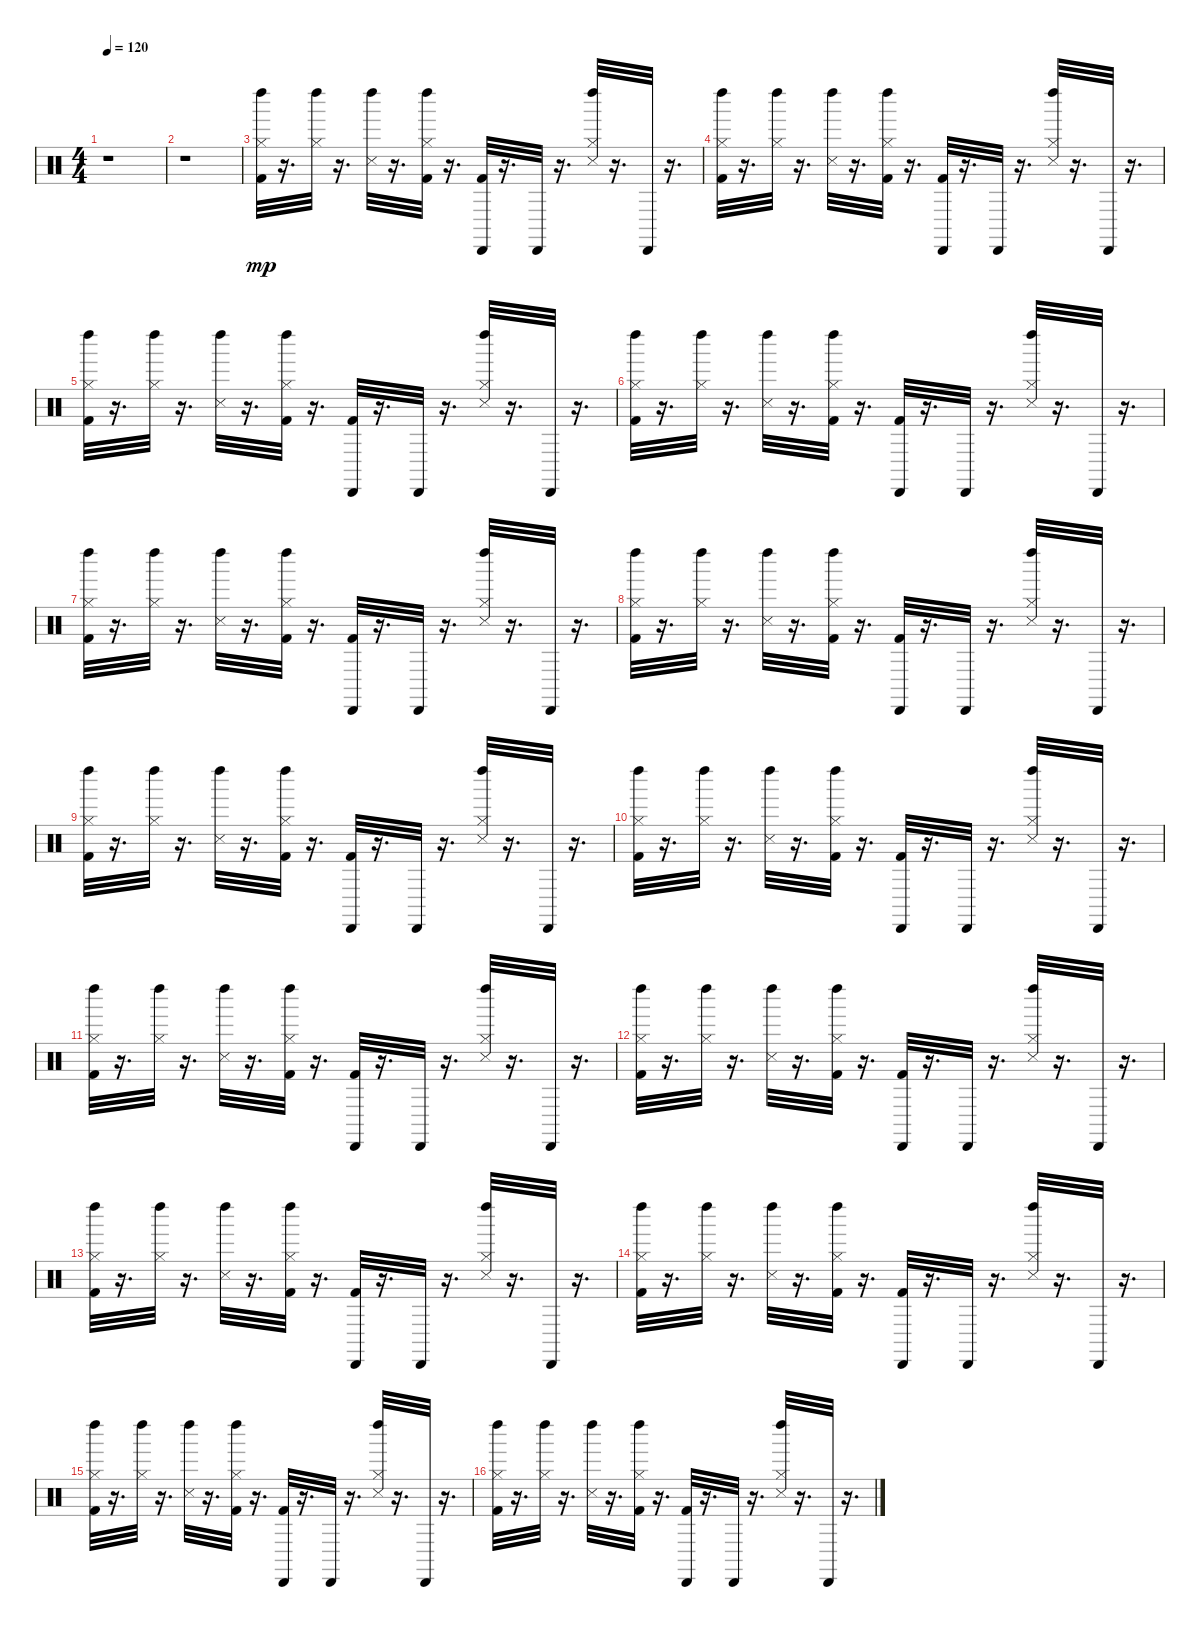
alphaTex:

\track "" {instrument percussion}
\staff {score}
\articulation defaults
\ts (4 4)
\tempo 120
\clef neutral
\ks c
r.1{dy mp} |
r.1 |
("Left Maraca (hit)" "Hi-Hat (closed)" "Kick (hit) 2").32 r.16{d} ("Left Maraca (hit)" "Hi-Hat (closed)").32 r.16{d} ("Snare (side stick) 3" "Left Maraca (hit)").32 r.16{d} ("Kick (hit) 2" "Left Maraca (hit)" "Hi-Hat (closed)").32 r.16{d} ("Kick (hit) 2" "Cabasa (hit)").32 r.16{d} "Cabasa (hit)".32 r.16{d} ("Snare (side stick) 3" "Hi-Hat (closed)" "Left Maraca (hit)").32 r.16{d} "Cabasa (hit)".32 r.16{d} |
("Left Maraca (hit)" "Hi-Hat (closed)" "Kick (hit) 2").32 r.16{d} ("Left Maraca (hit)" "Hi-Hat (closed)").32 r.16{d} ("Snare (side stick) 3" "Left Maraca (hit)").32 r.16{d} ("Kick (hit) 2" "Left Maraca (hit)" "Hi-Hat (closed)").32 r.16{d} ("Kick (hit) 2" "Cabasa (hit)").32 r.16{d} "Cabasa (hit)".32 r.16{d} ("Snare (side stick) 3" "Hi-Hat (closed)" "Left Maraca (hit)").32 r.16{d} "Cabasa (hit)".32 r.16{d} |
("Left Maraca (hit)" "Hi-Hat (closed)" "Kick (hit) 2").32 r.16{d} ("Left Maraca (hit)" "Hi-Hat (closed)").32 r.16{d} ("Snare (side stick) 3" "Left Maraca (hit)").32 r.16{d} ("Kick (hit) 2" "Left Maraca (hit)" "Hi-Hat (closed)").32 r.16{d} ("Kick (hit) 2" "Cabasa (hit)").32 r.16{d} "Cabasa (hit)".32 r.16{d} ("Snare (side stick) 3" "Hi-Hat (closed)" "Left Maraca (hit)").32 r.16{d} "Cabasa (hit)".32 r.16{d} |
("Left Maraca (hit)" "Hi-Hat (closed)" "Kick (hit) 2").32 r.16{d} ("Left Maraca (hit)" "Hi-Hat (closed)").32 r.16{d} ("Snare (side stick) 3" "Left Maraca (hit)").32 r.16{d} ("Kick (hit) 2" "Left Maraca (hit)" "Hi-Hat (closed)").32 r.16{d} ("Kick (hit) 2" "Cabasa (hit)").32 r.16{d} "Cabasa (hit)".32 r.16{d} ("Snare (side stick) 3" "Hi-Hat (closed)" "Left Maraca (hit)").32 r.16{d} "Cabasa (hit)".32 r.16{d} |
("Left Maraca (hit)" "Hi-Hat (closed)" "Kick (hit) 2").32 r.16{d} ("Left Maraca (hit)" "Hi-Hat (closed)").32 r.16{d} ("Snare (side stick) 3" "Left Maraca (hit)").32 r.16{d} ("Kick (hit) 2" "Left Maraca (hit)" "Hi-Hat (closed)").32 r.16{d} ("Kick (hit) 2" "Cabasa (hit)").32 r.16{d} "Cabasa (hit)".32 r.16{d} ("Snare (side stick) 3" "Hi-Hat (closed)" "Left Maraca (hit)").32 r.16{d} "Cabasa (hit)".32 r.16{d} |
("Left Maraca (hit)" "Hi-Hat (closed)" "Kick (hit) 2").32 r.16{d} ("Left Maraca (hit)" "Hi-Hat (closed)").32 r.16{d} ("Snare (side stick) 3" "Left Maraca (hit)").32 r.16{d} ("Kick (hit) 2" "Left Maraca (hit)" "Hi-Hat (closed)").32 r.16{d} ("Kick (hit) 2" "Cabasa (hit)").32 r.16{d} "Cabasa (hit)".32 r.16{d} ("Snare (side stick) 3" "Hi-Hat (closed)" "Left Maraca (hit)").32 r.16{d} "Cabasa (hit)".32 r.16{d} |
("Left Maraca (hit)" "Hi-Hat (closed)" "Kick (hit) 2").32 r.16{d} ("Left Maraca (hit)" "Hi-Hat (closed)").32 r.16{d} ("Snare (side stick) 3" "Left Maraca (hit)").32 r.16{d} ("Kick (hit) 2" "Left Maraca (hit)" "Hi-Hat (closed)").32 r.16{d} ("Kick (hit) 2" "Cabasa (hit)").32 r.16{d} "Cabasa (hit)".32 r.16{d} ("Snare (side stick) 3" "Hi-Hat (closed)" "Left Maraca (hit)").32 r.16{d} "Cabasa (hit)".32 r.16{d} |
("Left Maraca (hit)" "Hi-Hat (closed)" "Kick (hit) 2").32 r.16{d} ("Left Maraca (hit)" "Hi-Hat (closed)").32 r.16{d} ("Snare (side stick) 3" "Left Maraca (hit)").32 r.16{d} ("Kick (hit) 2" "Left Maraca (hit)" "Hi-Hat (closed)").32 r.16{d} ("Kick (hit) 2" "Cabasa (hit)").32 r.16{d} "Cabasa (hit)".32 r.16{d} ("Snare (side stick) 3" "Hi-Hat (closed)" "Left Maraca (hit)").32 r.16{d} "Cabasa (hit)".32 r.16{d} |
("Left Maraca (hit)" "Hi-Hat (closed)" "Kick (hit) 2").32 r.16{d} ("Left Maraca (hit)" "Hi-Hat (closed)").32 r.16{d} ("Snare (side stick) 3" "Left Maraca (hit)").32 r.16{d} ("Kick (hit) 2" "Left Maraca (hit)" "Hi-Hat (closed)").32 r.16{d} ("Kick (hit) 2" "Cabasa (hit)").32 r.16{d} "Cabasa (hit)".32 r.16{d} ("Snare (side stick) 3" "Hi-Hat (closed)" "Left Maraca (hit)").32 r.16{d} "Cabasa (hit)".32 r.16{d} |
("Left Maraca (hit)" "Hi-Hat (closed)" "Kick (hit) 2").32 r.16{d} ("Left Maraca (hit)" "Hi-Hat (closed)").32 r.16{d} ("Snare (side stick) 3" "Left Maraca (hit)").32 r.16{d} ("Kick (hit) 2" "Left Maraca (hit)" "Hi-Hat (closed)").32 r.16{d} ("Kick (hit) 2" "Cabasa (hit)").32 r.16{d} "Cabasa (hit)".32 r.16{d} ("Snare (side stick) 3" "Hi-Hat (closed)" "Left Maraca (hit)").32 r.16{d} "Cabasa (hit)".32 r.16{d} |
("Left Maraca (hit)" "Hi-Hat (closed)" "Kick (hit) 2").32 r.16{d} ("Left Maraca (hit)" "Hi-Hat (closed)").32 r.16{d} ("Snare (side stick) 3" "Left Maraca (hit)").32 r.16{d} ("Kick (hit) 2" "Left Maraca (hit)" "Hi-Hat (closed)").32 r.16{d} ("Kick (hit) 2" "Cabasa (hit)").32 r.16{d} "Cabasa (hit)".32 r.16{d} ("Snare (side stick) 3" "Hi-Hat (closed)" "Left Maraca (hit)").32 r.16{d} "Cabasa (hit)".32 r.16{d} |
("Left Maraca (hit)" "Hi-Hat (closed)" "Kick (hit) 2").32 r.16{d} ("Left Maraca (hit)" "Hi-Hat (closed)").32 r.16{d} ("Snare (side stick) 3" "Left Maraca (hit)").32 r.16{d} ("Kick (hit) 2" "Left Maraca (hit)" "Hi-Hat (closed)").32 r.16{d} ("Kick (hit) 2" "Cabasa (hit)").32 r.16{d} "Cabasa (hit)".32 r.16{d} ("Snare (side stick) 3" "Hi-Hat (closed)" "Left Maraca (hit)").32 r.16{d} "Cabasa (hit)".32 r.16{d} |
("Left Maraca (hit)" "Hi-Hat (closed)" "Kick (hit) 2").32 r.16{d} ("Left Maraca (hit)" "Hi-Hat (closed)").32 r.16{d} ("Snare (side stick) 3" "Left Maraca (hit)").32 r.16{d} ("Kick (hit) 2" "Left Maraca (hit)" "Hi-Hat (closed)").32 r.16{d} ("Kick (hit) 2" "Cabasa (hit)").32 r.16{d} "Cabasa (hit)".32 r.16{d} ("Snare (side stick) 3" "Hi-Hat (closed)" "Left Maraca (hit)").32 r.16{d} "Cabasa (hit)".32 r.16{d} |
("Left Maraca (hit)" "Hi-Hat (closed)" "Kick (hit) 2").32 r.16{d} ("Left Maraca (hit)" "Hi-Hat (closed)").32 r.16{d} ("Snare (side stick) 3" "Left Maraca (hit)").32 r.16{d} ("Kick (hit) 2" "Left Maraca (hit)" "Hi-Hat (closed)").32 r.16{d} ("Kick (hit) 2" "Cabasa (hit)").32 r.16{d} "Cabasa (hit)".32 r.16{d} ("Snare (side stick) 3" "Hi-Hat (closed)" "Left Maraca (hit)").32 r.16{d} "Cabasa (hit)".32 r.16{d}
